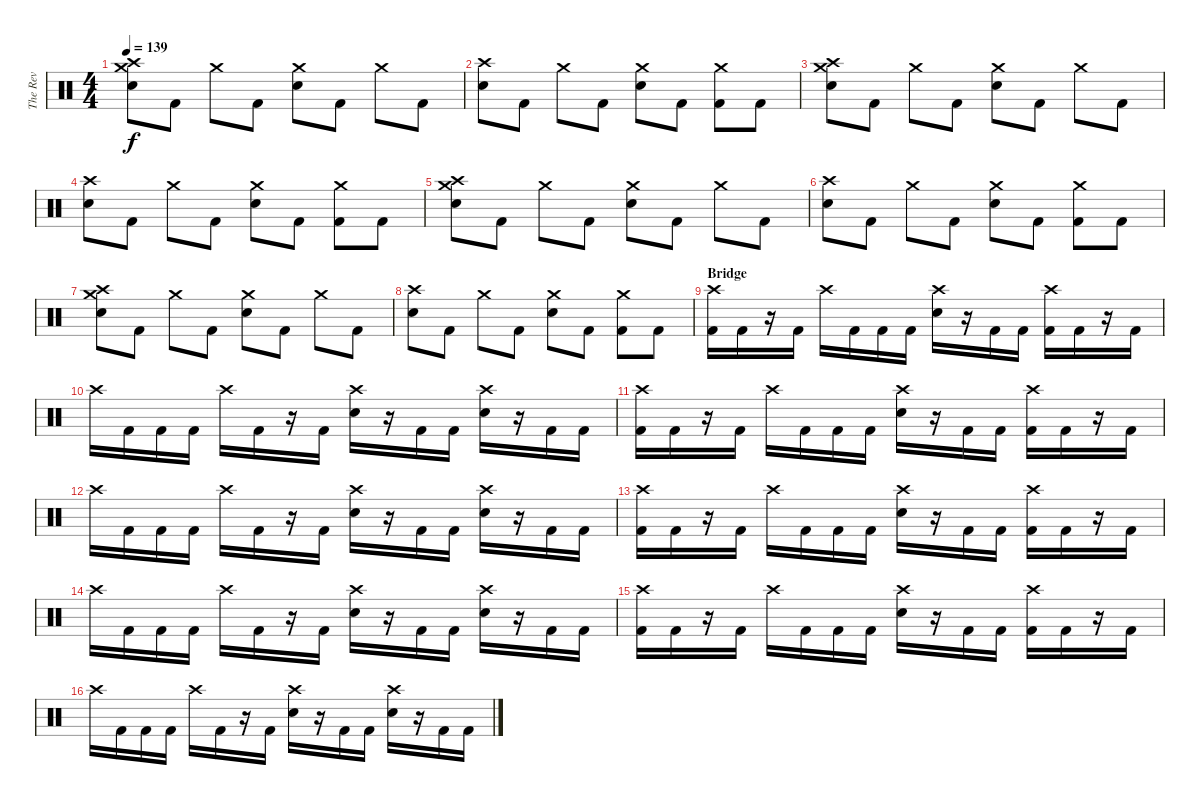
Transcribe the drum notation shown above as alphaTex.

\track ("The Rev" "The Rev") {instrument percussion}
\staff {score}
\articulation defaults
\ts (4 4)
\tempo 139
\clef neutral
\ks c
("Crash high (hit)" "Crash medium (hit)" "Electric Snare (hit)").8{dy f} "Kick (hit) 2".8 "Crash medium (hit)".8 "Kick (hit) 2".8 ("Crash medium (hit)" "Electric Snare (hit)").8 "Kick (hit) 2".8 "Crash medium (hit)".8 "Kick (hit) 2".8 |
("Crash high (hit)" "Electric Snare (hit)").8 "Kick (hit) 2".8 "Crash medium (hit)".8 "Kick (hit) 2".8 ("Crash medium (hit)" "Electric Snare (hit)").8 "Kick (hit) 2".8 ("Crash medium (hit)" "Kick (hit) 2").8 "Kick (hit) 2".8 |
("Crash high (hit)" "Crash medium (hit)" "Electric Snare (hit)").8 "Kick (hit) 2".8 "Crash medium (hit)".8 "Kick (hit) 2".8 ("Crash medium (hit)" "Electric Snare (hit)").8 "Kick (hit) 2".8 "Crash medium (hit)".8 "Kick (hit) 2".8 |
("Crash high (hit)" "Electric Snare (hit)").8 "Kick (hit) 2".8 "Crash medium (hit)".8 "Kick (hit) 2".8 ("Crash medium (hit)" "Electric Snare (hit)").8 "Kick (hit) 2".8 ("Crash medium (hit)" "Kick (hit) 2").8 "Kick (hit) 2".8 |
("Crash high (hit)" "Crash medium (hit)" "Electric Snare (hit)").8 "Kick (hit) 2".8 "Crash medium (hit)".8 "Kick (hit) 2".8 ("Crash medium (hit)" "Electric Snare (hit)").8 "Kick (hit) 2".8 "Crash medium (hit)".8 "Kick (hit) 2".8 |
("Crash high (hit)" "Electric Snare (hit)").8 "Kick (hit) 2".8 "Crash medium (hit)".8 "Kick (hit) 2".8 ("Crash medium (hit)" "Electric Snare (hit)").8 "Kick (hit) 2".8 ("Crash medium (hit)" "Kick (hit) 2").8 "Kick (hit) 2".8 |
("Crash high (hit)" "Crash medium (hit)" "Electric Snare (hit)").8 "Kick (hit) 2".8 "Crash medium (hit)".8 "Kick (hit) 2".8 ("Crash medium (hit)" "Electric Snare (hit)").8 "Kick (hit) 2".8 "Crash medium (hit)".8 "Kick (hit) 2".8 |
("Crash high (hit)" "Electric Snare (hit)").8 "Kick (hit) 2".8 "Crash medium (hit)".8 "Kick (hit) 2".8 ("Crash medium (hit)" "Electric Snare (hit)").8 "Kick (hit) 2".8 ("Crash medium (hit)" "Kick (hit) 2").8 "Kick (hit) 2".8 |
\section ("" "Bridge")
("Crash high (hit)" "Kick (hit) 2").16 "Kick (hit) 2".16 r.16 "Kick (hit) 2".16 "Crash high (hit)".16 "Kick (hit) 2".16 "Kick (hit) 2".16 "Kick (hit) 2".16 ("Crash high (hit)" "Electric Snare (hit)").16 r.16 "Kick (hit) 2".16 "Kick (hit) 2".16 ("Crash high (hit)" "Kick (hit) 2").16 "Kick (hit) 2".16 r.16 "Kick (hit) 2".16 |
"Crash high (hit)".16 "Kick (hit) 2".16 "Kick (hit) 2".16 "Kick (hit) 2".16 "Crash high (hit)".16 "Kick (hit) 2".16 r.16 "Kick (hit) 2".16 ("Crash high (hit)" "Electric Snare (hit)").16 r.16 "Kick (hit) 2".16 "Kick (hit) 2".16 ("Crash high (hit)" "Electric Snare (hit)").16 r.16 "Kick (hit) 2".16 "Kick (hit) 2".16 |
("Crash high (hit)" "Kick (hit) 2").16 "Kick (hit) 2".16 r.16 "Kick (hit) 2".16 "Crash high (hit)".16 "Kick (hit) 2".16 "Kick (hit) 2".16 "Kick (hit) 2".16 ("Crash high (hit)" "Electric Snare (hit)").16 r.16 "Kick (hit) 2".16 "Kick (hit) 2".16 ("Crash high (hit)" "Kick (hit) 2").16 "Kick (hit) 2".16 r.16 "Kick (hit) 2".16 |
"Crash high (hit)".16 "Kick (hit) 2".16 "Kick (hit) 2".16 "Kick (hit) 2".16 "Crash high (hit)".16 "Kick (hit) 2".16 r.16 "Kick (hit) 2".16 ("Crash high (hit)" "Electric Snare (hit)").16 r.16 "Kick (hit) 2".16 "Kick (hit) 2".16 ("Crash high (hit)" "Electric Snare (hit)").16 r.16 "Kick (hit) 2".16 "Kick (hit) 2".16 |
("Crash high (hit)" "Kick (hit) 2").16 "Kick (hit) 2".16 r.16 "Kick (hit) 2".16 "Crash high (hit)".16 "Kick (hit) 2".16 "Kick (hit) 2".16 "Kick (hit) 2".16 ("Crash high (hit)" "Electric Snare (hit)").16 r.16 "Kick (hit) 2".16 "Kick (hit) 2".16 ("Crash high (hit)" "Kick (hit) 2").16 "Kick (hit) 2".16 r.16 "Kick (hit) 2".16 |
"Crash high (hit)".16 "Kick (hit) 2".16 "Kick (hit) 2".16 "Kick (hit) 2".16 "Crash high (hit)".16 "Kick (hit) 2".16 r.16 "Kick (hit) 2".16 ("Crash high (hit)" "Electric Snare (hit)").16 r.16 "Kick (hit) 2".16 "Kick (hit) 2".16 ("Crash high (hit)" "Electric Snare (hit)").16 r.16 "Kick (hit) 2".16 "Kick (hit) 2".16 |
("Crash high (hit)" "Kick (hit) 2").16 "Kick (hit) 2".16 r.16 "Kick (hit) 2".16 "Crash high (hit)".16 "Kick (hit) 2".16 "Kick (hit) 2".16 "Kick (hit) 2".16 ("Crash high (hit)" "Electric Snare (hit)").16 r.16 "Kick (hit) 2".16 "Kick (hit) 2".16 ("Crash high (hit)" "Kick (hit) 2").16 "Kick (hit) 2".16 r.16 "Kick (hit) 2".16 |
"Crash high (hit)".16 "Kick (hit) 2".16 "Kick (hit) 2".16 "Kick (hit) 2".16 "Crash high (hit)".16 "Kick (hit) 2".16 r.16 "Kick (hit) 2".16 ("Crash high (hit)" "Electric Snare (hit)").16 r.16 "Kick (hit) 2".16 "Kick (hit) 2".16 ("Crash high (hit)" "Electric Snare (hit)").16 r.16 "Kick (hit) 2".16 "Kick (hit) 2".16
